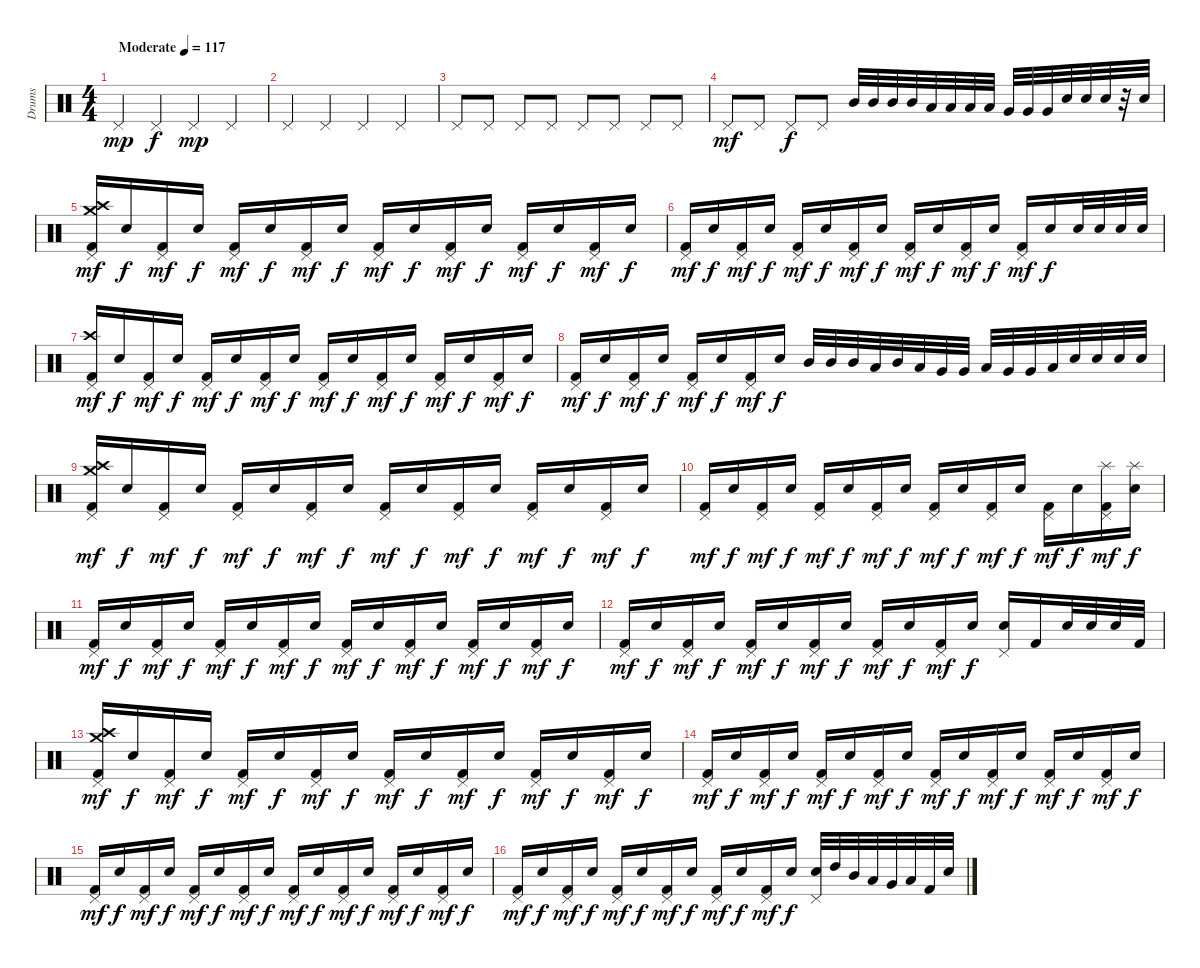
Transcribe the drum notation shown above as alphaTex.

\track ("Drums" "Drums") {instrument percussion}
\staff {score}
\articulation defaults
\ts (4 4)
\tempo (117 "Moderate")
\clef neutral
\ks c "Pedal Hi-Hat (hit)".4{dy mp} "Pedal Hi-Hat (hit)".4{dy f} "Pedal Hi-Hat (hit)".4{dy mp} "Pedal Hi-Hat (hit)".4
|
"Pedal Hi-Hat (hit)".4 "Pedal Hi-Hat (hit)".4 "Pedal Hi-Hat (hit)".4 "Pedal Hi-Hat (hit)".4 |
"Pedal Hi-Hat (hit)".8 "Pedal Hi-Hat (hit)".8 "Pedal Hi-Hat (hit)".8 "Pedal Hi-Hat (hit)".8 "Pedal Hi-Hat (hit)".8 "Pedal Hi-Hat (hit)".8 "Pedal Hi-Hat (hit)".8 "Pedal Hi-Hat (hit)".8 |
"Pedal Hi-Hat (hit)".8{dy mf} "Pedal Hi-Hat (hit)".8 "Pedal Hi-Hat (hit)".8{dy f} "Pedal Hi-Hat (hit)".8 "Mid Tom (hit)".32 "Mid Tom (hit)".32 "Mid Tom (hit)".32 "Mid Tom (hit)".32 "Low Tom (hit)".32 "Low Tom (hit)".32 "Low Tom (hit)".32 "Low Tom (hit)".32 "Very Low Tom (hit)".32 "Very Low Tom (hit)".32 "Very Low Tom (hit)".32 "Snare (hit) 2".32 "Snare (hit) 2".32 "Snare (hit) 2".32 r.32 "Snare (hit) 2".32 |
("Crash high (hit)" "Crash medium (hit)" "Pedal Hi-Hat (hit)" "Kick (hit) 2").16{dy mf} "Snare (hit) 2".16{dy f} ("Pedal Hi-Hat (hit)" "Kick (hit) 2").16{dy mf} "Snare (hit) 2".16{dy f} ("Pedal Hi-Hat (hit)" "Kick (hit) 2").16{dy mf} "Snare (hit) 2".16{dy f} ("Pedal Hi-Hat (hit)" "Kick (hit) 2").16{dy mf} "Snare (hit) 2".16{dy f} ("Pedal Hi-Hat (hit)" "Kick (hit) 2").16{dy mf} "Snare (hit) 2".16{dy f} ("Pedal Hi-Hat (hit)" "Kick (hit) 2").16{dy mf} "Snare (hit) 2".16{dy f} ("Pedal Hi-Hat (hit)" "Kick (hit) 2").16{dy mf} "Snare (hit) 2".16{dy f} ("Pedal Hi-Hat (hit)" "Kick (hit) 2").16{dy mf} "Snare (hit) 2".16{dy f} |
("Pedal Hi-Hat (hit)" "Kick (hit) 2").16{dy mf} "Snare (hit) 2".16{dy f} ("Pedal Hi-Hat (hit)" "Kick (hit) 2").16{dy mf} "Snare (hit) 2".16{dy f} ("Pedal Hi-Hat (hit)" "Kick (hit) 2").16{dy mf} "Snare (hit) 2".16{dy f} ("Pedal Hi-Hat (hit)" "Kick (hit) 2").16{dy mf} "Snare (hit) 2".16{dy f} ("Pedal Hi-Hat (hit)" "Kick (hit) 2").16{dy mf} "Snare (hit) 2".16{dy f} ("Pedal Hi-Hat (hit)" "Kick (hit) 2").16{dy mf} "Snare (hit) 2".16{dy f} ("Pedal Hi-Hat (hit)" "Kick (hit) 2").16{dy mf} "Snare (hit) 2".16{dy f} "Snare (hit) 2".32 "Snare (hit) 2".32 "Snare (hit) 2".32 "Snare (hit) 2".32 |
("Crash high (hit)" "Pedal Hi-Hat (hit)" "Kick (hit) 2").16{dy mf} "Snare (hit) 2".16{dy f} ("Pedal Hi-Hat (hit)" "Kick (hit) 2").16{dy mf} "Snare (hit) 2".16{dy f} ("Pedal Hi-Hat (hit)" "Kick (hit) 2").16{dy mf} "Snare (hit) 2".16{dy f} ("Pedal Hi-Hat (hit)" "Kick (hit) 2").16{dy mf} "Snare (hit) 2".16{dy f} ("Pedal Hi-Hat (hit)" "Kick (hit) 2").16{dy mf} "Snare (hit) 2".16{dy f} ("Pedal Hi-Hat (hit)" "Kick (hit) 2").16{dy mf} "Snare (hit) 2".16{dy f} ("Pedal Hi-Hat (hit)" "Kick (hit) 2").16{dy mf} "Snare (hit) 2".16{dy f} ("Pedal Hi-Hat (hit)" "Kick (hit) 2").16{dy mf} "Snare (hit) 2".16{dy f} |
("Pedal Hi-Hat (hit)" "Kick (hit) 2").16{dy mf} "Snare (hit) 2".16{dy f} ("Pedal Hi-Hat (hit)" "Kick (hit) 2").16{dy mf} "Snare (hit) 2".16{dy f} ("Pedal Hi-Hat (hit)" "Kick (hit) 2").16{dy mf} "Snare (hit) 2".16{dy f} ("Pedal Hi-Hat (hit)" "Kick (hit) 2").16{dy mf} "Snare (hit) 2".16{dy f} "Mid Tom (hit)".32 "Mid Tom (hit)".32 "Mid Tom (hit)".32 "Low Tom (hit)".32 "Mid Tom (hit)".32 "Low Tom (hit)".32 "Very Low Tom (hit)".32 "Very Low Tom (hit)".32 "Low Tom (hit)".32 "Very Low Tom (hit)".32 "Very Low Tom (hit)".32 "Low Floor Tom (hit)".32 "Snare (hit) 2".32 "Snare (hit) 2".32 "Snare (hit) 2".32 "Snare (hit) 2".32 |
("Crash high (hit)" "Crash medium (hit)" "Pedal Hi-Hat (hit)" "Kick (hit) 2").16{dy mf} "Snare (hit) 2".16{dy f} ("Pedal Hi-Hat (hit)" "Kick (hit) 2").16{dy mf} "Snare (hit) 2".16{dy f} ("Pedal Hi-Hat (hit)" "Kick (hit) 2").16{dy mf} "Snare (hit) 2".16{dy f} ("Pedal Hi-Hat (hit)" "Kick (hit) 2").16{dy mf} "Snare (hit) 2".16{dy f} ("Pedal Hi-Hat (hit)" "Kick (hit) 2").16{dy mf} "Snare (hit) 2".16{dy f} ("Pedal Hi-Hat (hit)" "Kick (hit) 2").16{dy mf} "Snare (hit) 2".16{dy f} ("Pedal Hi-Hat (hit)" "Kick (hit) 2").16{dy mf} "Snare (hit) 2".16{dy f} ("Pedal Hi-Hat (hit)" "Kick (hit) 2").16{dy mf} "Snare (hit) 2".16{dy f} |
("Pedal Hi-Hat (hit)" "Kick (hit) 2").16{dy mf} "Snare (hit) 2".16{dy f} ("Pedal Hi-Hat (hit)" "Kick (hit) 2").16{dy mf} "Snare (hit) 2".16{dy f} ("Pedal Hi-Hat (hit)" "Kick (hit) 2").16{dy mf} "Snare (hit) 2".16{dy f} ("Pedal Hi-Hat (hit)" "Kick (hit) 2").16{dy mf} "Snare (hit) 2".16{dy f} ("Pedal Hi-Hat (hit)" "Kick (hit) 2").16{dy mf} "Snare (hit) 2".16{dy f} ("Pedal Hi-Hat (hit)" "Kick (hit) 2").16{dy mf} "Snare (hit) 2".16{dy f} ("Pedal Hi-Hat (hit)" "Kick (hit) 2").16{dy mf} "Snare (hit) 2".16{dy f} ("Splash (hit)" "Pedal Hi-Hat (hit)" "Kick (hit) 2").16{dy mf} ("Splash (hit)" "Snare (hit) 2").16{dy f} |
("Pedal Hi-Hat (hit)" "Kick (hit) 2").16{dy mf} "Snare (hit) 2".16{dy f} ("Pedal Hi-Hat (hit)" "Kick (hit) 2").16{dy mf} "Snare (hit) 2".16{dy f} ("Pedal Hi-Hat (hit)" "Kick (hit) 2").16{dy mf} "Snare (hit) 2".16{dy f} ("Pedal Hi-Hat (hit)" "Kick (hit) 2").16{dy mf} "Snare (hit) 2".16{dy f} ("Pedal Hi-Hat (hit)" "Kick (hit) 2").16{dy mf} "Snare (hit) 2".16{dy f} ("Pedal Hi-Hat (hit)" "Kick (hit) 2").16{dy mf} "Snare (hit) 2".16{dy f} ("Pedal Hi-Hat (hit)" "Kick (hit) 2").16{dy mf} "Snare (hit) 2".16{dy f} ("Pedal Hi-Hat (hit)" "Kick (hit) 2").16{dy mf} "Snare (hit) 2".16{dy f} |
("Pedal Hi-Hat (hit)" "Kick (hit) 2").16{dy mf} "Snare (hit) 2".16{dy f} ("Pedal Hi-Hat (hit)" "Kick (hit) 2").16{dy mf} "Snare (hit) 2".16{dy f} ("Pedal Hi-Hat (hit)" "Kick (hit) 2").16{dy mf} "Snare (hit) 2".16{dy f} ("Pedal Hi-Hat (hit)" "Kick (hit) 2").16{dy mf} "Snare (hit) 2".16{dy f} ("Pedal Hi-Hat (hit)" "Kick (hit) 2").16{dy mf} "Snare (hit) 2".16{dy f} ("Pedal Hi-Hat (hit)" "Kick (hit) 2").16{dy mf} "Snare (hit) 2".16{dy f} ("Pedal Hi-Hat (hit)" "Snare (hit) 2").16 "Kick (hit) 2".16 "Snare (hit) 2".32 "Snare (hit) 2".32 "Snare (hit) 2".32 "Kick (hit) 2".32 |
("Crash high (hit)" "Crash medium (hit)" "Pedal Hi-Hat (hit)" "Kick (hit) 2").16{dy mf} "Snare (hit) 2".16{dy f} ("Pedal Hi-Hat (hit)" "Kick (hit) 2").16{dy mf} "Snare (hit) 2".16{dy f} ("Pedal Hi-Hat (hit)" "Kick (hit) 2").16{dy mf} "Snare (hit) 2".16{dy f} ("Pedal Hi-Hat (hit)" "Kick (hit) 2").16{dy mf} "Snare (hit) 2".16{dy f} ("Pedal Hi-Hat (hit)" "Kick (hit) 2").16{dy mf} "Snare (hit) 2".16{dy f} ("Pedal Hi-Hat (hit)" "Kick (hit) 2").16{dy mf} "Snare (hit) 2".16{dy f} ("Pedal Hi-Hat (hit)" "Kick (hit) 2").16{dy mf} "Snare (hit) 2".16{dy f} ("Pedal Hi-Hat (hit)" "Kick (hit) 2").16{dy mf} "Snare (hit) 2".16{dy f} |
("Pedal Hi-Hat (hit)" "Kick (hit) 2").16{dy mf} "Snare (hit) 2".16{dy f} ("Pedal Hi-Hat (hit)" "Kick (hit) 2").16{dy mf} "Snare (hit) 2".16{dy f} ("Pedal Hi-Hat (hit)" "Kick (hit) 2").16{dy mf} "Snare (hit) 2".16{dy f} ("Pedal Hi-Hat (hit)" "Kick (hit) 2").16{dy mf} "Snare (hit) 2".16{dy f} ("Pedal Hi-Hat (hit)" "Kick (hit) 2").16{dy mf} "Snare (hit) 2".16{dy f} ("Pedal Hi-Hat (hit)" "Kick (hit) 2").16{dy mf} "Snare (hit) 2".16{dy f} ("Pedal Hi-Hat (hit)" "Kick (hit) 2").16{dy mf} "Snare (hit) 2".16{dy f} ("Pedal Hi-Hat (hit)" "Kick (hit) 2").16{dy mf} "Snare (hit) 2".16{dy f} |
("Pedal Hi-Hat (hit)" "Kick (hit) 2").16{dy mf} "Snare (hit) 2".16{dy f} ("Pedal Hi-Hat (hit)" "Kick (hit) 2").16{dy mf} "Snare (hit) 2".16{dy f} ("Pedal Hi-Hat (hit)" "Kick (hit) 2").16{dy mf} "Snare (hit) 2".16{dy f} ("Pedal Hi-Hat (hit)" "Kick (hit) 2").16{dy mf} "Snare (hit) 2".16{dy f} ("Pedal Hi-Hat (hit)" "Kick (hit) 2").16{dy mf} "Snare (hit) 2".16{dy f} ("Pedal Hi-Hat (hit)" "Kick (hit) 2").16{dy mf} "Snare (hit) 2".16{dy f} ("Pedal Hi-Hat (hit)" "Kick (hit) 2").16{dy mf} "Snare (hit) 2".16{dy f} ("Pedal Hi-Hat (hit)" "Kick (hit) 2").16{dy mf} "Snare (hit) 2".16{dy f} |
("Pedal Hi-Hat (hit)" "Kick (hit) 2").16{dy mf} "Snare (hit) 2".16{dy f} ("Pedal Hi-Hat (hit)" "Kick (hit) 2").16{dy mf} "Snare (hit) 2".16{dy f} ("Pedal Hi-Hat (hit)" "Kick (hit) 2").16{dy mf} "Snare (hit) 2".16{dy f} ("Pedal Hi-Hat (hit)" "Kick (hit) 2").16{dy mf} "Snare (hit) 2".16{dy f} ("Pedal Hi-Hat (hit)" "Kick (hit) 2").16{dy mf} "Snare (hit) 2".16{dy f} ("Pedal Hi-Hat (hit)" "Kick (hit) 2").16{dy mf} "Snare (hit) 2".16{dy f} ("Pedal Hi-Hat (hit)" "Snare (hit) 2").32 "High Tom (hit)".32 "Mid Tom (hit)".32 "Low Tom (hit)".32 "Very Low Tom (hit)".32 "Low Floor Tom (hit)".32 "Kick (hit) 2".32 "Snare (hit) 2".32
